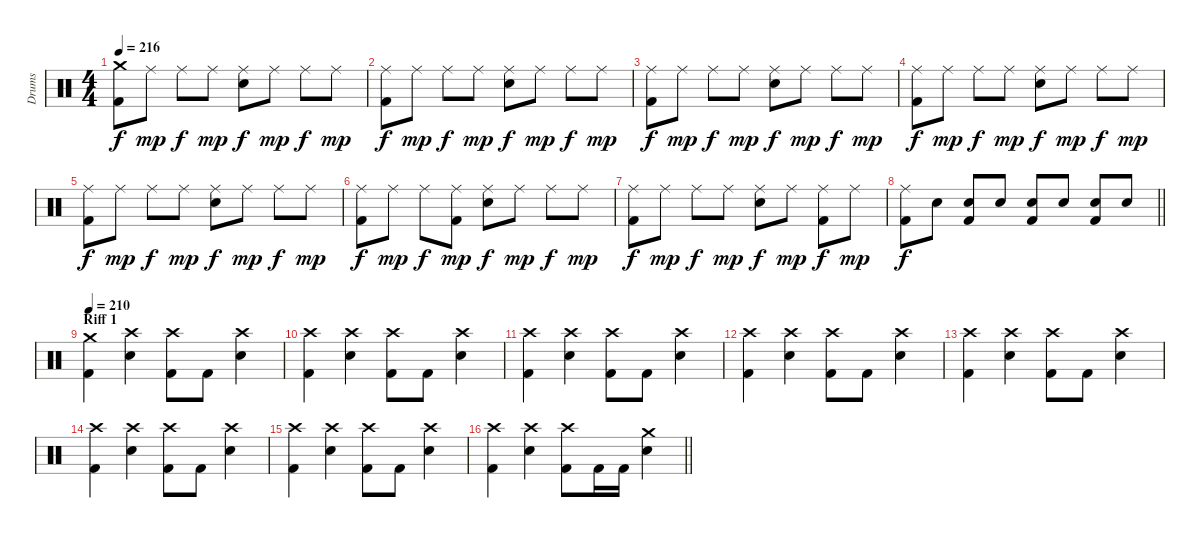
\track ("Drums" "Drums") {instrument percussion}
\staff {score}
\articulation defaults
\ts (4 4)
\tempo 216
\clef neutral
\ks c
("Kick (hit) 2" "Crash medium (hit)").8{dy f} "Ride (middle)".8{dy mp} "Ride (middle)".8{dy f} "Ride (middle)".8{dy mp} ("Ride (middle)" "Electric Snare (hit)").8{dy f} "Ride (middle)".8{dy mp} "Ride (middle)".8{dy f} "Ride (middle)".8{dy mp} |
("Kick (hit) 2" "Ride (middle)").8{dy f} "Ride (middle)".8{dy mp} "Ride (middle)".8{dy f} "Ride (middle)".8{dy mp} ("Ride (middle)" "Electric Snare (hit)").8{dy f} "Ride (middle)".8{dy mp} "Ride (middle)".8{dy f} "Ride (middle)".8{dy mp} |
("Kick (hit) 2" "Ride (middle)").8{dy f} "Ride (middle)".8{dy mp} "Ride (middle)".8{dy f} "Ride (middle)".8{dy mp} ("Ride (middle)" "Electric Snare (hit)").8{dy f} "Ride (middle)".8{dy mp} "Ride (middle)".8{dy f} "Ride (middle)".8{dy mp} |
("Kick (hit) 2" "Ride (middle)").8{dy f} "Ride (middle)".8{dy mp} "Ride (middle)".8{dy f} "Ride (middle)".8{dy mp} ("Ride (middle)" "Electric Snare (hit)").8{dy f} "Ride (middle)".8{dy mp} "Ride (middle)".8{dy f} "Ride (middle)".8{dy mp} |
("Kick (hit) 2" "Ride (middle)").8{dy f} "Ride (middle)".8{dy mp} "Ride (middle)".8{dy f} "Ride (middle)".8{dy mp} ("Ride (middle)" "Electric Snare (hit)").8{dy f} "Ride (middle)".8{dy mp} "Ride (middle)".8{dy f} "Ride (middle)".8{dy mp} |
("Kick (hit) 2" "Ride (middle)").8{dy f} "Ride (middle)".8{dy mp} "Ride (middle)".8{dy f} ("Ride (middle)" "Kick (hit) 2").8{dy mp} ("Ride (middle)" "Electric Snare (hit)").8{dy f} "Ride (middle)".8{dy mp} "Ride (middle)".8{dy f} "Ride (middle)".8{dy mp} |
("Kick (hit) 2" "Ride (middle)").8{dy f} "Ride (middle)".8{dy mp} "Ride (middle)".8{dy f} "Ride (middle)".8{dy mp} ("Ride (middle)" "Electric Snare (hit)").8{dy f} "Ride (middle)".8{dy mp} ("Ride (middle)" "Kick (hit) 2").8{dy f} "Ride (middle)".8{dy mp} |
\barLineRight lightlight
("Ride (middle)" "Kick (hit) 2").8{dy f} "Electric Snare (hit)".8 ("Electric Snare (hit)" "Kick (hit) 2").8 "Electric Snare (hit)".8 ("Electric Snare (hit)" "Kick (hit) 2").8 "Electric Snare (hit)".8 ("Electric Snare (hit)" "Kick (hit) 2").8 "Electric Snare (hit)".8 |
\section ("" "Riff 1")
\tempo 210
("Crash medium (hit)" "Kick (hit) 2").4 ("Crash high (hit)" "Electric Snare (hit)").4 ("Kick (hit) 2" "Crash high (hit)").8 "Kick (hit) 2".8 ("Crash high (hit)" "Electric Snare (hit)").4 |
("Crash high (hit)" "Kick (hit) 2").4 ("Crash high (hit)" "Electric Snare (hit)").4 ("Kick (hit) 2" "Crash high (hit)").8 "Kick (hit) 2".8 ("Crash high (hit)" "Electric Snare (hit)").4 |
("Crash high (hit)" "Kick (hit) 2").4 ("Crash high (hit)" "Electric Snare (hit)").4 ("Kick (hit) 2" "Crash high (hit)").8 "Kick (hit) 2".8 ("Crash high (hit)" "Electric Snare (hit)").4 |
("Crash high (hit)" "Kick (hit) 2").4 ("Crash high (hit)" "Electric Snare (hit)").4 ("Kick (hit) 2" "Crash high (hit)").8 "Kick (hit) 2".8 ("Crash high (hit)" "Electric Snare (hit)").4 |
("Crash high (hit)" "Kick (hit) 2").4 ("Crash high (hit)" "Electric Snare (hit)").4 ("Kick (hit) 2" "Crash high (hit)").8 "Kick (hit) 2".8 ("Crash high (hit)" "Electric Snare (hit)").4 |
("Crash high (hit)" "Kick (hit) 2").4 ("Crash high (hit)" "Electric Snare (hit)").4 ("Kick (hit) 2" "Crash high (hit)").8 "Kick (hit) 2".8 ("Crash high (hit)" "Electric Snare (hit)").4 |
("Crash high (hit)" "Kick (hit) 2").4 ("Crash high (hit)" "Electric Snare (hit)").4 ("Kick (hit) 2" "Crash high (hit)").8 "Kick (hit) 2".8 ("Crash high (hit)" "Electric Snare (hit)").4 |
\barLineRight lightlight
("Crash high (hit)" "Kick (hit) 2").4 ("Crash high (hit)" "Electric Snare (hit)").4 ("Kick (hit) 2" "Crash high (hit)").8 "Kick (hit) 2".16 "Kick (hit) 2".16 ("Electric Snare (hit)" "Crash medium (hit)").4
